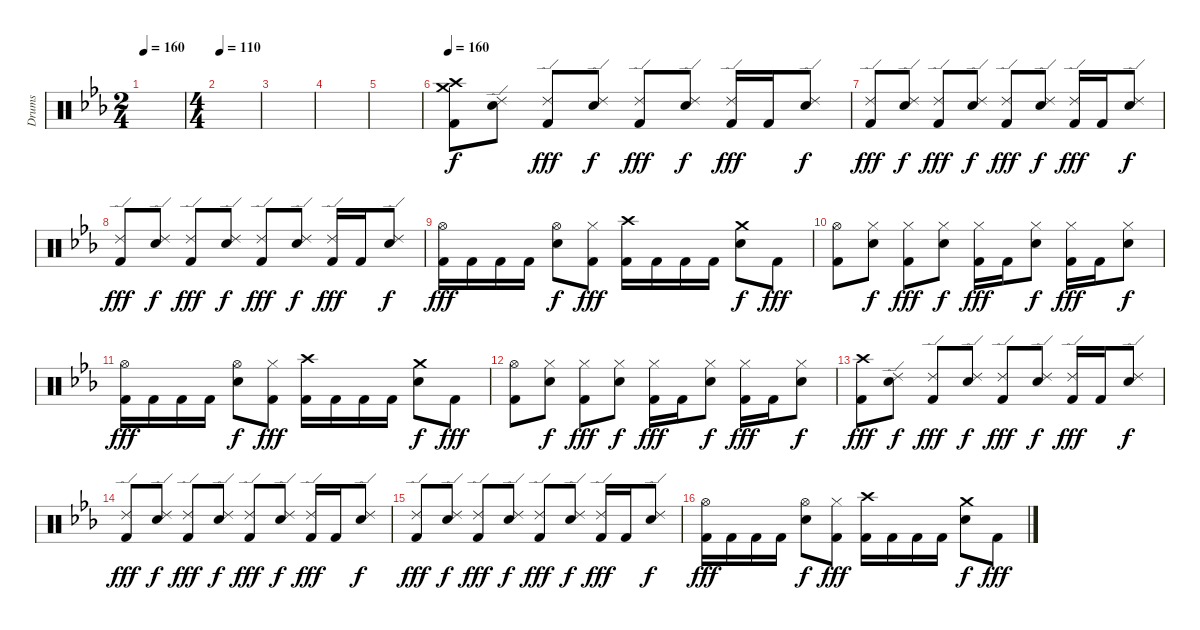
\track ("Drums" "Drums") {instrument percussion}
\staff {score}
\articulation defaults
\ts (2 4)
\tempo 160
\tempo 110
\tempo 160
\clef neutral
\ks eb
|
\ts (4 4)
\tempo 110
|
|
|
|
\tempo 160
("Crash high (hit)" "Crash medium (hit)" "Kick (hit) 2").8 ("Ride (edge) 2" "Electric Snare (hit)").8{dy f} ("Ride (edge) 2" "Kick (hit) 2").8{dy fff} ("Ride (edge) 2" "Electric Snare (hit)").8{dy f} ("Ride (edge) 2" "Kick (hit) 2").8{dy fff} ("Ride (edge) 2" "Electric Snare (hit)").8{dy f} ("Ride (edge) 2" "Kick (hit) 2").16{dy fff} "Kick (hit) 2".16 ("Ride (edge) 2" "Electric Snare (hit)").8{dy f} |
("Ride (edge) 2" "Kick (hit) 2").8{dy fff} ("Ride (edge) 2" "Electric Snare (hit)").8{dy f} ("Ride (edge) 2" "Kick (hit) 2").8{dy fff} ("Ride (edge) 2" "Electric Snare (hit)").8{dy f} ("Ride (edge) 2" "Kick (hit) 2").8{dy fff} ("Ride (edge) 2" "Electric Snare (hit)").8{dy f} ("Ride (edge) 2" "Kick (hit) 2").16{dy fff} "Kick (hit) 2".16 ("Ride (edge) 2" "Electric Snare (hit)").8{dy f} |
("Ride (edge) 2" "Kick (hit) 2").8{dy fff} ("Ride (edge) 2" "Electric Snare (hit)").8{dy f} ("Ride (edge) 2" "Kick (hit) 2").8{dy fff} ("Ride (edge) 2" "Electric Snare (hit)").8{dy f} ("Ride (edge) 2" "Kick (hit) 2").8{dy fff} ("Ride (edge) 2" "Electric Snare (hit)").8{dy f} ("Ride (edge) 2" "Kick (hit) 2").16{dy fff} "Kick (hit) 2".16 ("Ride (edge) 2" "Electric Snare (hit)").8{dy f} |
("Hi-Hat (open)" "Kick (hit) 2").16{dy fff} "Kick (hit) 2".16 "Kick (hit) 2".16 "Kick (hit) 2".16 ("Hi-Hat (open)" "Electric Snare (hit)").8{dy f} ("Hi-Hat (closed)" "Kick (hit) 2").8{dy fff} ("Crash high (hit)" "Kick (hit) 2").16 "Kick (hit) 2".16 "Kick (hit) 2".16 "Kick (hit) 2".16 ("Crash medium (hit)" "Electric Snare (hit)").8{dy f} "Kick (hit) 2".8{dy fff} |
("Hi-Hat (open)" "Kick (hit) 2").8 ("Hi-Hat (closed)" "Electric Snare (hit)").8{dy f} ("Hi-Hat (closed)" "Kick (hit) 2").8{dy fff} ("Hi-Hat (closed)" "Electric Snare (hit)").8{dy f} ("Hi-Hat (closed)" "Kick (hit) 2").16{dy fff} "Kick (hit) 2".16 ("Hi-Hat (closed)" "Electric Snare (hit)").8{dy f} ("Hi-Hat (closed)" "Kick (hit) 2").16{dy fff} "Kick (hit) 2".16 ("Hi-Hat (closed)" "Electric Snare (hit)").8{dy f} |
("Hi-Hat (open)" "Kick (hit) 2").16{dy fff} "Kick (hit) 2".16 "Kick (hit) 2".16 "Kick (hit) 2".16 ("Hi-Hat (open)" "Electric Snare (hit)").8{dy f} ("Hi-Hat (closed)" "Kick (hit) 2").8{dy fff} ("Crash high (hit)" "Kick (hit) 2").16 "Kick (hit) 2".16 "Kick (hit) 2".16 "Kick (hit) 2".16 ("Crash medium (hit)" "Electric Snare (hit)").8{dy f} "Kick (hit) 2".8{dy fff} |
("Hi-Hat (open)" "Kick (hit) 2").8 ("Hi-Hat (closed)" "Electric Snare (hit)").8{dy f} ("Hi-Hat (closed)" "Kick (hit) 2").8{dy fff} ("Hi-Hat (closed)" "Electric Snare (hit)").8{dy f} ("Hi-Hat (closed)" "Kick (hit) 2").16{dy fff} "Kick (hit) 2".16 ("Hi-Hat (closed)" "Electric Snare (hit)").8{dy f} ("Hi-Hat (closed)" "Kick (hit) 2").16{dy fff} "Kick (hit) 2".16 ("Hi-Hat (closed)" "Electric Snare (hit)").8{dy f} |
("Crash high (hit)" "Kick (hit) 2").8{dy fff} ("Ride (edge) 2" "Electric Snare (hit)").8{dy f} ("Ride (edge) 2" "Kick (hit) 2").8{dy fff} ("Ride (edge) 2" "Electric Snare (hit)").8{dy f} ("Ride (edge) 2" "Kick (hit) 2").8{dy fff} ("Ride (edge) 2" "Electric Snare (hit)").8{dy f} ("Ride (edge) 2" "Kick (hit) 2").16{dy fff} "Kick (hit) 2".16 ("Ride (edge) 2" "Electric Snare (hit)").8{dy f} |
("Ride (edge) 2" "Kick (hit) 2").8{dy fff} ("Ride (edge) 2" "Electric Snare (hit)").8{dy f} ("Ride (edge) 2" "Kick (hit) 2").8{dy fff} ("Ride (edge) 2" "Electric Snare (hit)").8{dy f} ("Ride (edge) 2" "Kick (hit) 2").8{dy fff} ("Ride (edge) 2" "Electric Snare (hit)").8{dy f} ("Ride (edge) 2" "Kick (hit) 2").16{dy fff} "Kick (hit) 2".16 ("Ride (edge) 2" "Electric Snare (hit)").8{dy f} |
("Ride (edge) 2" "Kick (hit) 2").8{dy fff} ("Ride (edge) 2" "Electric Snare (hit)").8{dy f} ("Ride (edge) 2" "Kick (hit) 2").8{dy fff} ("Ride (edge) 2" "Electric Snare (hit)").8{dy f} ("Ride (edge) 2" "Kick (hit) 2").8{dy fff} ("Ride (edge) 2" "Electric Snare (hit)").8{dy f} ("Ride (edge) 2" "Kick (hit) 2").16{dy fff} "Kick (hit) 2".16 ("Ride (edge) 2" "Electric Snare (hit)").8{dy f} |
("Hi-Hat (open)" "Kick (hit) 2").16{dy fff} "Kick (hit) 2".16 "Kick (hit) 2".16 "Kick (hit) 2".16 ("Hi-Hat (open)" "Electric Snare (hit)").8{dy f} ("Hi-Hat (closed)" "Kick (hit) 2").8{dy fff} ("Crash high (hit)" "Kick (hit) 2").16 "Kick (hit) 2".16 "Kick (hit) 2".16 "Kick (hit) 2".16 ("Crash medium (hit)" "Electric Snare (hit)").8{dy f} "Kick (hit) 2".8{dy fff}
